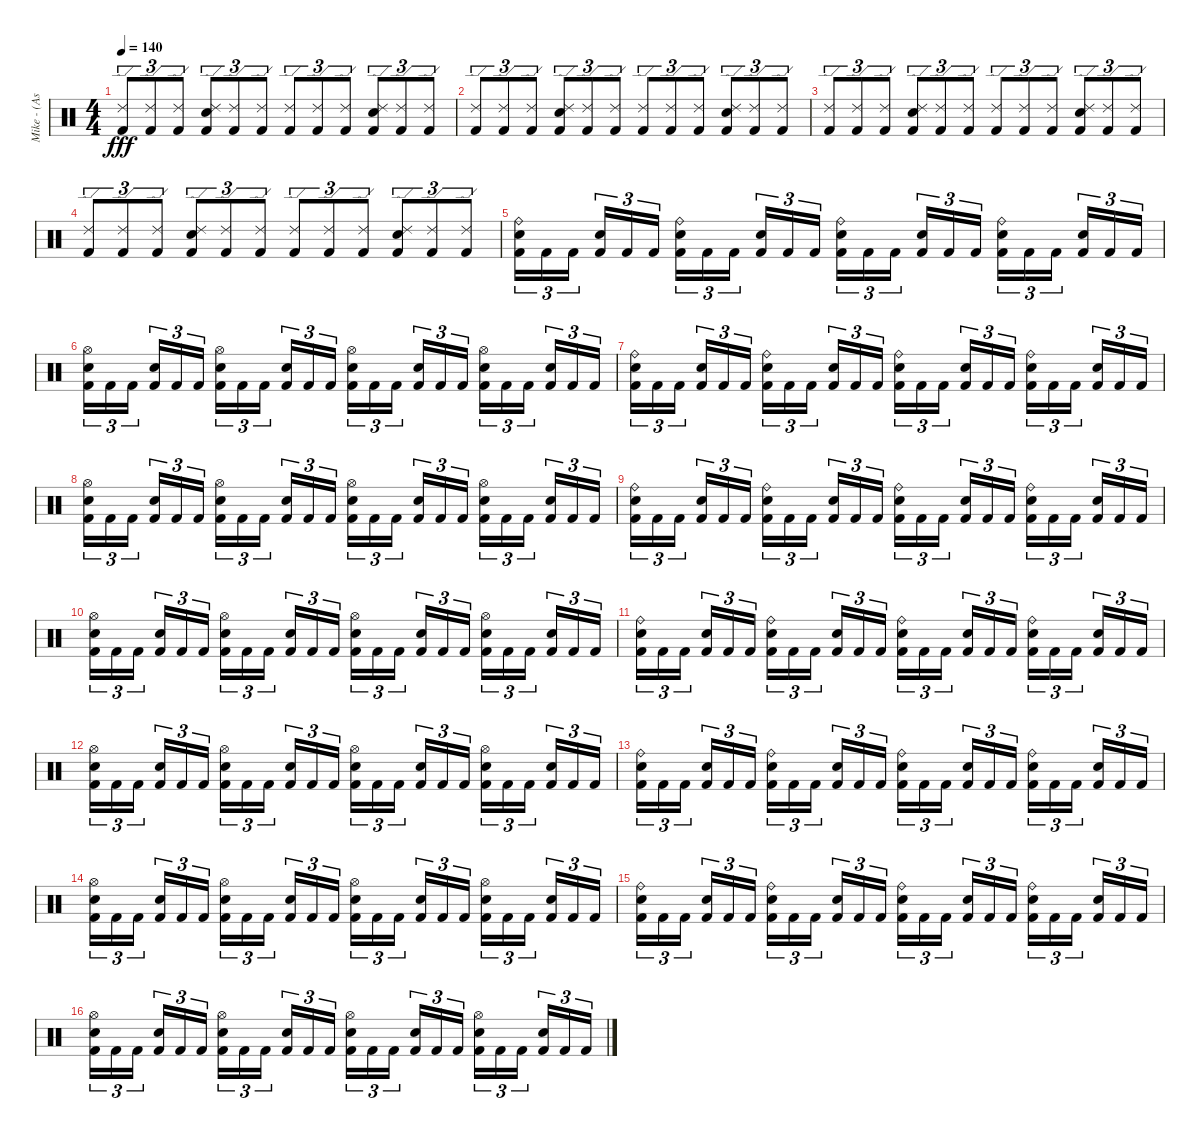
\track ("Mike - (Assault and Battery)" "Mike - (As") {instrument percussion}
\staff {score}
\articulation defaults
\ts (4 4)
\tempo 140
\clef neutral
\ks c
("Ride (edge) 2" "Kick (hit) 2").8{tu (3 2) dy fff} ("Ride (edge) 2" "Kick (hit) 2").8{tu (3 2)} ("Ride (edge) 2" "Kick (hit) 2").8{tu (3 2)} ("Ride (edge) 2" "Electric Snare (hit)" "Kick (hit) 2").8{tu (3 2)} ("Ride (edge) 2" "Kick (hit) 2").8{tu (3 2)} ("Ride (edge) 2" "Kick (hit) 2").8{tu (3 2)} ("Ride (edge) 2" "Kick (hit) 2").8{tu (3 2)} ("Ride (edge) 2" "Kick (hit) 2").8{tu (3 2)} ("Ride (edge) 2" "Kick (hit) 2").8{tu (3 2)} ("Ride (edge) 2" "Electric Snare (hit)" "Kick (hit) 2").8{tu (3 2)} ("Ride (edge) 2" "Kick (hit) 2").8{tu (3 2)} ("Ride (edge) 2" "Kick (hit) 2").8{tu (3 2)} |
("Ride (edge) 2" "Kick (hit) 2").8{tu (3 2)} ("Ride (edge) 2" "Kick (hit) 2").8{tu (3 2)} ("Ride (edge) 2" "Kick (hit) 2").8{tu (3 2)} ("Ride (edge) 2" "Electric Snare (hit)" "Kick (hit) 2").8{tu (3 2)} ("Ride (edge) 2" "Kick (hit) 2").8{tu (3 2)} ("Ride (edge) 2" "Kick (hit) 2").8{tu (3 2)} ("Ride (edge) 2" "Kick (hit) 2").8{tu (3 2)} ("Ride (edge) 2" "Kick (hit) 2").8{tu (3 2)} ("Ride (edge) 2" "Kick (hit) 2").8{tu (3 2)} ("Ride (edge) 2" "Electric Snare (hit)" "Kick (hit) 2").8{tu (3 2)} ("Ride (edge) 2" "Kick (hit) 2").8{tu (3 2)} ("Ride (edge) 2" "Kick (hit) 2").8{tu (3 2)} |
("Ride (edge) 2" "Kick (hit) 2").8{tu (3 2)} ("Ride (edge) 2" "Kick (hit) 2").8{tu (3 2)} ("Ride (edge) 2" "Kick (hit) 2").8{tu (3 2)} ("Ride (edge) 2" "Electric Snare (hit)" "Kick (hit) 2").8{tu (3 2)} ("Ride (edge) 2" "Kick (hit) 2").8{tu (3 2)} ("Ride (edge) 2" "Kick (hit) 2").8{tu (3 2)} ("Ride (edge) 2" "Kick (hit) 2").8{tu (3 2)} ("Ride (edge) 2" "Kick (hit) 2").8{tu (3 2)} ("Ride (edge) 2" "Kick (hit) 2").8{tu (3 2)} ("Ride (edge) 2" "Electric Snare (hit)" "Kick (hit) 2").8{tu (3 2)} ("Ride (edge) 2" "Kick (hit) 2").8{tu (3 2)} ("Ride (edge) 2" "Kick (hit) 2").8{tu (3 2)} |
("Ride (edge) 2" "Kick (hit) 2").8{tu (3 2)} ("Ride (edge) 2" "Kick (hit) 2").8{tu (3 2)} ("Ride (edge) 2" "Kick (hit) 2").8{tu (3 2)} ("Ride (edge) 2" "Electric Snare (hit)" "Kick (hit) 2").8{tu (3 2)} ("Ride (edge) 2" "Kick (hit) 2").8{tu (3 2)} ("Ride (edge) 2" "Kick (hit) 2").8{tu (3 2)} ("Ride (edge) 2" "Kick (hit) 2").8{tu (3 2)} ("Ride (edge) 2" "Kick (hit) 2").8{tu (3 2)} ("Ride (edge) 2" "Kick (hit) 2").8{tu (3 2)} ("Ride (edge) 2" "Electric Snare (hit)" "Kick (hit) 2").8{tu (3 2)} ("Ride (edge) 2" "Kick (hit) 2").8{tu (3 2)} ("Ride (edge) 2" "Kick (hit) 2").8{tu (3 2)} |
("Electric Snare (hit)" "Ride (bell)" "Kick (hit) 2").16{tu (3 2)} "Kick (hit) 2".16{tu (3 2)} "Kick (hit) 2".16{tu (3 2)} ("Electric Snare (hit)" "Kick (hit) 2").16{tu (3 2)} "Kick (hit) 2".16{tu (3 2)} "Kick (hit) 2".16{tu (3 2)} ("Electric Snare (hit)" "Ride (bell)" "Kick (hit) 2").16{tu (3 2)} "Kick (hit) 2".16{tu (3 2)} "Kick (hit) 2".16{tu (3 2)} ("Electric Snare (hit)" "Kick (hit) 2").16{tu (3 2)} "Kick (hit) 2".16{tu (3 2)} "Kick (hit) 2".16{tu (3 2)} ("Electric Snare (hit)" "Ride (bell)" "Kick (hit) 2").16{tu (3 2)} "Kick (hit) 2".16{tu (3 2)} "Kick (hit) 2".16{tu (3 2)} ("Electric Snare (hit)" "Kick (hit) 2").16{tu (3 2)} "Kick (hit) 2".16{tu (3 2)} "Kick (hit) 2".16{tu (3 2)} ("Electric Snare (hit)" "Ride (bell)" "Kick (hit) 2").16{tu (3 2)} "Kick (hit) 2".16{tu (3 2)} "Kick (hit) 2".16{tu (3 2)} ("Electric Snare (hit)" "Kick (hit) 2").16{tu (3 2)} "Kick (hit) 2".16{tu (3 2)} "Kick (hit) 2".16{tu (3 2)} |
("Electric Snare (hit)" "Hi-Hat (open)" "Kick (hit) 2").16{tu (3 2)} "Kick (hit) 2".16{tu (3 2)} "Kick (hit) 2".16{tu (3 2)} ("Electric Snare (hit)" "Kick (hit) 2").16{tu (3 2)} "Kick (hit) 2".16{tu (3 2)} "Kick (hit) 2".16{tu (3 2)} ("Electric Snare (hit)" "Hi-Hat (open)" "Kick (hit) 2").16{tu (3 2)} "Kick (hit) 2".16{tu (3 2)} "Kick (hit) 2".16{tu (3 2)} ("Electric Snare (hit)" "Kick (hit) 2").16{tu (3 2)} "Kick (hit) 2".16{tu (3 2)} "Kick (hit) 2".16{tu (3 2)} ("Electric Snare (hit)" "Hi-Hat (open)" "Kick (hit) 2").16{tu (3 2)} "Kick (hit) 2".16{tu (3 2)} "Kick (hit) 2".16{tu (3 2)} ("Electric Snare (hit)" "Kick (hit) 2").16{tu (3 2)} "Kick (hit) 2".16{tu (3 2)} "Kick (hit) 2".16{tu (3 2)} ("Electric Snare (hit)" "Hi-Hat (open)" "Kick (hit) 2").16{tu (3 2)} "Kick (hit) 2".16{tu (3 2)} "Kick (hit) 2".16{tu (3 2)} ("Electric Snare (hit)" "Kick (hit) 2").16{tu (3 2)} "Kick (hit) 2".16{tu (3 2)} "Kick (hit) 2".16{tu (3 2)} |
("Electric Snare (hit)" "Ride (bell)" "Kick (hit) 2").16{tu (3 2)} "Kick (hit) 2".16{tu (3 2)} "Kick (hit) 2".16{tu (3 2)} ("Electric Snare (hit)" "Kick (hit) 2").16{tu (3 2)} "Kick (hit) 2".16{tu (3 2)} "Kick (hit) 2".16{tu (3 2)} ("Electric Snare (hit)" "Ride (bell)" "Kick (hit) 2").16{tu (3 2)} "Kick (hit) 2".16{tu (3 2)} "Kick (hit) 2".16{tu (3 2)} ("Electric Snare (hit)" "Kick (hit) 2").16{tu (3 2)} "Kick (hit) 2".16{tu (3 2)} "Kick (hit) 2".16{tu (3 2)} ("Electric Snare (hit)" "Ride (bell)" "Kick (hit) 2").16{tu (3 2)} "Kick (hit) 2".16{tu (3 2)} "Kick (hit) 2".16{tu (3 2)} ("Electric Snare (hit)" "Kick (hit) 2").16{tu (3 2)} "Kick (hit) 2".16{tu (3 2)} "Kick (hit) 2".16{tu (3 2)} ("Electric Snare (hit)" "Ride (bell)" "Kick (hit) 2").16{tu (3 2)} "Kick (hit) 2".16{tu (3 2)} "Kick (hit) 2".16{tu (3 2)} ("Electric Snare (hit)" "Kick (hit) 2").16{tu (3 2)} "Kick (hit) 2".16{tu (3 2)} "Kick (hit) 2".16{tu (3 2)} |
("Electric Snare (hit)" "Hi-Hat (open)" "Kick (hit) 2").16{tu (3 2)} "Kick (hit) 2".16{tu (3 2)} "Kick (hit) 2".16{tu (3 2)} ("Electric Snare (hit)" "Kick (hit) 2").16{tu (3 2)} "Kick (hit) 2".16{tu (3 2)} "Kick (hit) 2".16{tu (3 2)} ("Electric Snare (hit)" "Hi-Hat (open)" "Kick (hit) 2").16{tu (3 2)} "Kick (hit) 2".16{tu (3 2)} "Kick (hit) 2".16{tu (3 2)} ("Electric Snare (hit)" "Kick (hit) 2").16{tu (3 2)} "Kick (hit) 2".16{tu (3 2)} "Kick (hit) 2".16{tu (3 2)} ("Electric Snare (hit)" "Hi-Hat (open)" "Kick (hit) 2").16{tu (3 2)} "Kick (hit) 2".16{tu (3 2)} "Kick (hit) 2".16{tu (3 2)} ("Electric Snare (hit)" "Kick (hit) 2").16{tu (3 2)} "Kick (hit) 2".16{tu (3 2)} "Kick (hit) 2".16{tu (3 2)} ("Electric Snare (hit)" "Hi-Hat (open)" "Kick (hit) 2").16{tu (3 2)} "Kick (hit) 2".16{tu (3 2)} "Kick (hit) 2".16{tu (3 2)} ("Electric Snare (hit)" "Kick (hit) 2").16{tu (3 2)} "Kick (hit) 2".16{tu (3 2)} "Kick (hit) 2".16{tu (3 2)} |
("Electric Snare (hit)" "Ride (bell)" "Kick (hit) 2").16{tu (3 2)} "Kick (hit) 2".16{tu (3 2)} "Kick (hit) 2".16{tu (3 2)} ("Electric Snare (hit)" "Kick (hit) 2").16{tu (3 2)} "Kick (hit) 2".16{tu (3 2)} "Kick (hit) 2".16{tu (3 2)} ("Electric Snare (hit)" "Ride (bell)" "Kick (hit) 2").16{tu (3 2)} "Kick (hit) 2".16{tu (3 2)} "Kick (hit) 2".16{tu (3 2)} ("Electric Snare (hit)" "Kick (hit) 2").16{tu (3 2)} "Kick (hit) 2".16{tu (3 2)} "Kick (hit) 2".16{tu (3 2)} ("Electric Snare (hit)" "Ride (bell)" "Kick (hit) 2").16{tu (3 2)} "Kick (hit) 2".16{tu (3 2)} "Kick (hit) 2".16{tu (3 2)} ("Electric Snare (hit)" "Kick (hit) 2").16{tu (3 2)} "Kick (hit) 2".16{tu (3 2)} "Kick (hit) 2".16{tu (3 2)} ("Electric Snare (hit)" "Ride (bell)" "Kick (hit) 2").16{tu (3 2)} "Kick (hit) 2".16{tu (3 2)} "Kick (hit) 2".16{tu (3 2)} ("Electric Snare (hit)" "Kick (hit) 2").16{tu (3 2)} "Kick (hit) 2".16{tu (3 2)} "Kick (hit) 2".16{tu (3 2)} |
("Electric Snare (hit)" "Hi-Hat (open)" "Kick (hit) 2").16{tu (3 2)} "Kick (hit) 2".16{tu (3 2)} "Kick (hit) 2".16{tu (3 2)} ("Electric Snare (hit)" "Kick (hit) 2").16{tu (3 2)} "Kick (hit) 2".16{tu (3 2)} "Kick (hit) 2".16{tu (3 2)} ("Electric Snare (hit)" "Hi-Hat (open)" "Kick (hit) 2").16{tu (3 2)} "Kick (hit) 2".16{tu (3 2)} "Kick (hit) 2".16{tu (3 2)} ("Electric Snare (hit)" "Kick (hit) 2").16{tu (3 2)} "Kick (hit) 2".16{tu (3 2)} "Kick (hit) 2".16{tu (3 2)} ("Electric Snare (hit)" "Hi-Hat (open)" "Kick (hit) 2").16{tu (3 2)} "Kick (hit) 2".16{tu (3 2)} "Kick (hit) 2".16{tu (3 2)} ("Electric Snare (hit)" "Kick (hit) 2").16{tu (3 2)} "Kick (hit) 2".16{tu (3 2)} "Kick (hit) 2".16{tu (3 2)} ("Electric Snare (hit)" "Hi-Hat (open)" "Kick (hit) 2").16{tu (3 2)} "Kick (hit) 2".16{tu (3 2)} "Kick (hit) 2".16{tu (3 2)} ("Electric Snare (hit)" "Kick (hit) 2").16{tu (3 2)} "Kick (hit) 2".16{tu (3 2)} "Kick (hit) 2".16{tu (3 2)} |
("Electric Snare (hit)" "Ride (bell)" "Kick (hit) 2").16{tu (3 2)} "Kick (hit) 2".16{tu (3 2)} "Kick (hit) 2".16{tu (3 2)} ("Electric Snare (hit)" "Kick (hit) 2").16{tu (3 2)} "Kick (hit) 2".16{tu (3 2)} "Kick (hit) 2".16{tu (3 2)} ("Electric Snare (hit)" "Ride (bell)" "Kick (hit) 2").16{tu (3 2)} "Kick (hit) 2".16{tu (3 2)} "Kick (hit) 2".16{tu (3 2)} ("Electric Snare (hit)" "Kick (hit) 2").16{tu (3 2)} "Kick (hit) 2".16{tu (3 2)} "Kick (hit) 2".16{tu (3 2)} ("Electric Snare (hit)" "Ride (bell)" "Kick (hit) 2").16{tu (3 2)} "Kick (hit) 2".16{tu (3 2)} "Kick (hit) 2".16{tu (3 2)} ("Electric Snare (hit)" "Kick (hit) 2").16{tu (3 2)} "Kick (hit) 2".16{tu (3 2)} "Kick (hit) 2".16{tu (3 2)} ("Electric Snare (hit)" "Ride (bell)" "Kick (hit) 2").16{tu (3 2)} "Kick (hit) 2".16{tu (3 2)} "Kick (hit) 2".16{tu (3 2)} ("Electric Snare (hit)" "Kick (hit) 2").16{tu (3 2)} "Kick (hit) 2".16{tu (3 2)} "Kick (hit) 2".16{tu (3 2)} |
("Electric Snare (hit)" "Hi-Hat (open)" "Kick (hit) 2").16{tu (3 2)} "Kick (hit) 2".16{tu (3 2)} "Kick (hit) 2".16{tu (3 2)} ("Electric Snare (hit)" "Kick (hit) 2").16{tu (3 2)} "Kick (hit) 2".16{tu (3 2)} "Kick (hit) 2".16{tu (3 2)} ("Electric Snare (hit)" "Hi-Hat (open)" "Kick (hit) 2").16{tu (3 2)} "Kick (hit) 2".16{tu (3 2)} "Kick (hit) 2".16{tu (3 2)} ("Electric Snare (hit)" "Kick (hit) 2").16{tu (3 2)} "Kick (hit) 2".16{tu (3 2)} "Kick (hit) 2".16{tu (3 2)} ("Electric Snare (hit)" "Hi-Hat (open)" "Kick (hit) 2").16{tu (3 2)} "Kick (hit) 2".16{tu (3 2)} "Kick (hit) 2".16{tu (3 2)} ("Electric Snare (hit)" "Kick (hit) 2").16{tu (3 2)} "Kick (hit) 2".16{tu (3 2)} "Kick (hit) 2".16{tu (3 2)} ("Electric Snare (hit)" "Hi-Hat (open)" "Kick (hit) 2").16{tu (3 2)} "Kick (hit) 2".16{tu (3 2)} "Kick (hit) 2".16{tu (3 2)} ("Electric Snare (hit)" "Kick (hit) 2").16{tu (3 2)} "Kick (hit) 2".16{tu (3 2)} "Kick (hit) 2".16{tu (3 2)} |
("Electric Snare (hit)" "Ride (bell)" "Kick (hit) 2").16{tu (3 2)} "Kick (hit) 2".16{tu (3 2)} "Kick (hit) 2".16{tu (3 2)} ("Electric Snare (hit)" "Kick (hit) 2").16{tu (3 2)} "Kick (hit) 2".16{tu (3 2)} "Kick (hit) 2".16{tu (3 2)} ("Electric Snare (hit)" "Ride (bell)" "Kick (hit) 2").16{tu (3 2)} "Kick (hit) 2".16{tu (3 2)} "Kick (hit) 2".16{tu (3 2)} ("Electric Snare (hit)" "Kick (hit) 2").16{tu (3 2)} "Kick (hit) 2".16{tu (3 2)} "Kick (hit) 2".16{tu (3 2)} ("Electric Snare (hit)" "Ride (bell)" "Kick (hit) 2").16{tu (3 2)} "Kick (hit) 2".16{tu (3 2)} "Kick (hit) 2".16{tu (3 2)} ("Electric Snare (hit)" "Kick (hit) 2").16{tu (3 2)} "Kick (hit) 2".16{tu (3 2)} "Kick (hit) 2".16{tu (3 2)} ("Electric Snare (hit)" "Ride (bell)" "Kick (hit) 2").16{tu (3 2)} "Kick (hit) 2".16{tu (3 2)} "Kick (hit) 2".16{tu (3 2)} ("Electric Snare (hit)" "Kick (hit) 2").16{tu (3 2)} "Kick (hit) 2".16{tu (3 2)} "Kick (hit) 2".16{tu (3 2)} |
("Electric Snare (hit)" "Hi-Hat (open)" "Kick (hit) 2").16{tu (3 2)} "Kick (hit) 2".16{tu (3 2)} "Kick (hit) 2".16{tu (3 2)} ("Electric Snare (hit)" "Kick (hit) 2").16{tu (3 2)} "Kick (hit) 2".16{tu (3 2)} "Kick (hit) 2".16{tu (3 2)} ("Electric Snare (hit)" "Hi-Hat (open)" "Kick (hit) 2").16{tu (3 2)} "Kick (hit) 2".16{tu (3 2)} "Kick (hit) 2".16{tu (3 2)} ("Electric Snare (hit)" "Kick (hit) 2").16{tu (3 2)} "Kick (hit) 2".16{tu (3 2)} "Kick (hit) 2".16{tu (3 2)} ("Electric Snare (hit)" "Hi-Hat (open)" "Kick (hit) 2").16{tu (3 2)} "Kick (hit) 2".16{tu (3 2)} "Kick (hit) 2".16{tu (3 2)} ("Electric Snare (hit)" "Kick (hit) 2").16{tu (3 2)} "Kick (hit) 2".16{tu (3 2)} "Kick (hit) 2".16{tu (3 2)} ("Electric Snare (hit)" "Hi-Hat (open)" "Kick (hit) 2").16{tu (3 2)} "Kick (hit) 2".16{tu (3 2)} "Kick (hit) 2".16{tu (3 2)} ("Electric Snare (hit)" "Kick (hit) 2").16{tu (3 2)} "Kick (hit) 2".16{tu (3 2)} "Kick (hit) 2".16{tu (3 2)} |
("Electric Snare (hit)" "Ride (bell)" "Kick (hit) 2").16{tu (3 2)} "Kick (hit) 2".16{tu (3 2)} "Kick (hit) 2".16{tu (3 2)} ("Electric Snare (hit)" "Kick (hit) 2").16{tu (3 2)} "Kick (hit) 2".16{tu (3 2)} "Kick (hit) 2".16{tu (3 2)} ("Electric Snare (hit)" "Ride (bell)" "Kick (hit) 2").16{tu (3 2)} "Kick (hit) 2".16{tu (3 2)} "Kick (hit) 2".16{tu (3 2)} ("Electric Snare (hit)" "Kick (hit) 2").16{tu (3 2)} "Kick (hit) 2".16{tu (3 2)} "Kick (hit) 2".16{tu (3 2)} ("Electric Snare (hit)" "Ride (bell)" "Kick (hit) 2").16{tu (3 2)} "Kick (hit) 2".16{tu (3 2)} "Kick (hit) 2".16{tu (3 2)} ("Electric Snare (hit)" "Kick (hit) 2").16{tu (3 2)} "Kick (hit) 2".16{tu (3 2)} "Kick (hit) 2".16{tu (3 2)} ("Electric Snare (hit)" "Ride (bell)" "Kick (hit) 2").16{tu (3 2)} "Kick (hit) 2".16{tu (3 2)} "Kick (hit) 2".16{tu (3 2)} ("Electric Snare (hit)" "Kick (hit) 2").16{tu (3 2)} "Kick (hit) 2".16{tu (3 2)} "Kick (hit) 2".16{tu (3 2)} |
("Electric Snare (hit)" "Hi-Hat (open)" "Kick (hit) 2").16{tu (3 2)} "Kick (hit) 2".16{tu (3 2)} "Kick (hit) 2".16{tu (3 2)} ("Electric Snare (hit)" "Kick (hit) 2").16{tu (3 2)} "Kick (hit) 2".16{tu (3 2)} "Kick (hit) 2".16{tu (3 2)} ("Electric Snare (hit)" "Hi-Hat (open)" "Kick (hit) 2").16{tu (3 2)} "Kick (hit) 2".16{tu (3 2)} "Kick (hit) 2".16{tu (3 2)} ("Electric Snare (hit)" "Kick (hit) 2").16{tu (3 2)} "Kick (hit) 2".16{tu (3 2)} "Kick (hit) 2".16{tu (3 2)} ("Electric Snare (hit)" "Hi-Hat (open)" "Kick (hit) 2").16{tu (3 2)} "Kick (hit) 2".16{tu (3 2)} "Kick (hit) 2".16{tu (3 2)} ("Electric Snare (hit)" "Kick (hit) 2").16{tu (3 2)} "Kick (hit) 2".16{tu (3 2)} "Kick (hit) 2".16{tu (3 2)} ("Electric Snare (hit)" "Hi-Hat (open)" "Kick (hit) 2").16{tu (3 2)} "Kick (hit) 2".16{tu (3 2)} "Kick (hit) 2".16{tu (3 2)} ("Electric Snare (hit)" "Kick (hit) 2").16{tu (3 2)} "Kick (hit) 2".16{tu (3 2)} "Kick (hit) 2".16{tu (3 2)}
